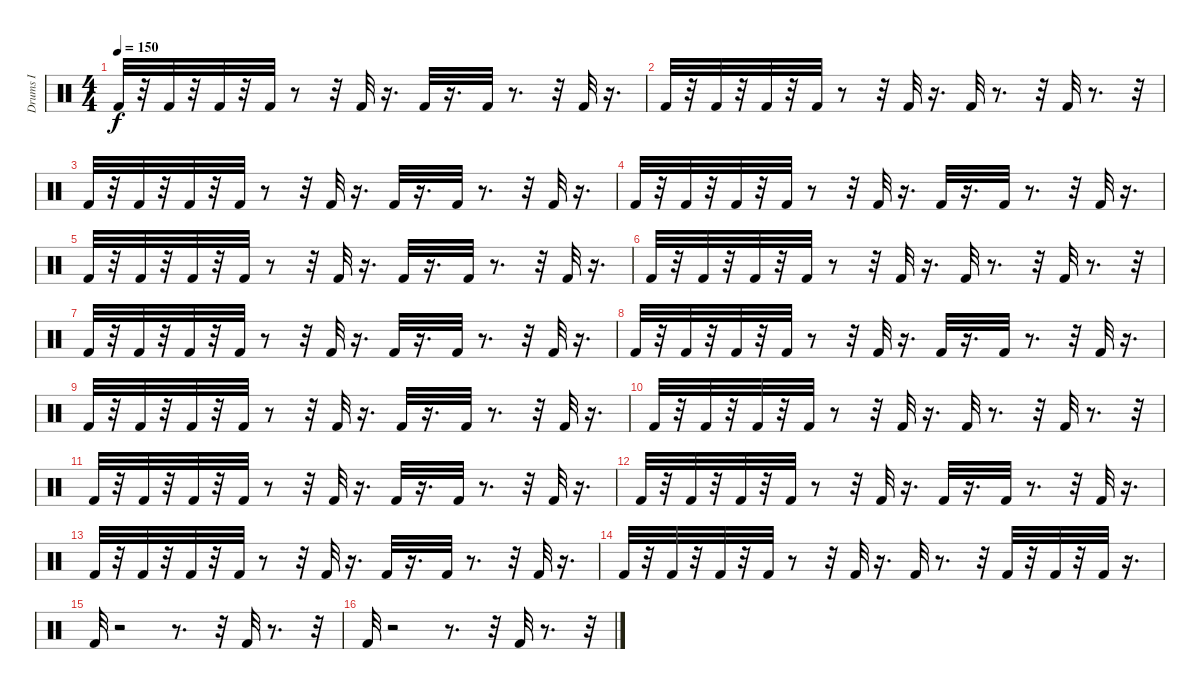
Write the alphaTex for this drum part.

\track ("Drums I" "Drums I") {instrument percussion}
\staff {score}
\articulation defaults
\ts (4 4)
\tempo 150
\clef neutral
\ks c "Kick (hit) 2".32{dy f}
r.32 "Kick (hit) 2".32 r.32 "Kick (hit) 2".32 r.32 "Kick (hit) 2".32 r.8 r.32 "Kick (hit) 2".32 r.16{d} "Kick (hit) 2".32 r.16{d} "Kick (hit) 2".32 r.8{d} r.32 "Kick (hit) 2".32 r.16{d} |
"Kick (hit) 2".32 r.32 "Kick (hit) 2".32 r.32 "Kick (hit) 2".32 r.32 "Kick (hit) 2".32 r.8 r.32 "Kick (hit) 2".32 r.16{d} "Kick (hit) 2".32 r.8{d} r.32 "Kick (hit) 2".32 r.8{d} r.32 |
"Kick (hit) 2".32 r.32 "Kick (hit) 2".32 r.32 "Kick (hit) 2".32 r.32 "Kick (hit) 2".32 r.8 r.32 "Kick (hit) 2".32 r.16{d} "Kick (hit) 2".32 r.16{d} "Kick (hit) 2".32 r.8{d} r.32 "Kick (hit) 2".32 r.16{d} |
"Kick (hit) 2".32 r.32 "Kick (hit) 2".32 r.32 "Kick (hit) 2".32 r.32 "Kick (hit) 2".32 r.8 r.32 "Kick (hit) 2".32 r.16{d} "Kick (hit) 2".32 r.16{d} "Kick (hit) 2".32 r.8{d} r.32 "Kick (hit) 2".32 r.16{d} |
"Kick (hit) 2".32 r.32 "Kick (hit) 2".32 r.32 "Kick (hit) 2".32 r.32 "Kick (hit) 2".32 r.8 r.32 "Kick (hit) 2".32 r.16{d} "Kick (hit) 2".32 r.16{d} "Kick (hit) 2".32 r.8{d} r.32 "Kick (hit) 2".32 r.16{d} |
"Kick (hit) 2".32 r.32 "Kick (hit) 2".32 r.32 "Kick (hit) 2".32 r.32 "Kick (hit) 2".32 r.8 r.32 "Kick (hit) 2".32 r.16{d} "Kick (hit) 2".32 r.8{d} r.32 "Kick (hit) 2".32 r.8{d} r.32 |
"Kick (hit) 2".32 r.32 "Kick (hit) 2".32 r.32 "Kick (hit) 2".32 r.32 "Kick (hit) 2".32 r.8 r.32 "Kick (hit) 2".32 r.16{d} "Kick (hit) 2".32 r.16{d} "Kick (hit) 2".32 r.8{d} r.32 "Kick (hit) 2".32 r.16{d} |
"Kick (hit) 2".32 r.32 "Kick (hit) 2".32 r.32 "Kick (hit) 2".32 r.32 "Kick (hit) 2".32 r.8 r.32 "Kick (hit) 2".32 r.16{d} "Kick (hit) 2".32 r.16{d} "Kick (hit) 2".32 r.8{d} r.32 "Kick (hit) 2".32 r.16{d} |
"Kick (hit) 2".32 r.32 "Kick (hit) 2".32 r.32 "Kick (hit) 2".32 r.32 "Kick (hit) 2".32 r.8 r.32 "Kick (hit) 2".32 r.16{d} "Kick (hit) 2".32 r.16{d} "Kick (hit) 2".32 r.8{d} r.32 "Kick (hit) 2".32 r.16{d} |
"Kick (hit) 2".32 r.32 "Kick (hit) 2".32 r.32 "Kick (hit) 2".32 r.32 "Kick (hit) 2".32 r.8 r.32 "Kick (hit) 2".32 r.16{d} "Kick (hit) 2".32 r.8{d} r.32 "Kick (hit) 2".32 r.8{d} r.32 |
"Kick (hit) 2".32 r.32 "Kick (hit) 2".32 r.32 "Kick (hit) 2".32 r.32 "Kick (hit) 2".32 r.8 r.32 "Kick (hit) 2".32 r.16{d} "Kick (hit) 2".32 r.16{d} "Kick (hit) 2".32 r.8{d} r.32 "Kick (hit) 2".32 r.16{d} |
"Kick (hit) 2".32 r.32 "Kick (hit) 2".32 r.32 "Kick (hit) 2".32 r.32 "Kick (hit) 2".32 r.8 r.32 "Kick (hit) 2".32 r.16{d} "Kick (hit) 2".32 r.16{d} "Kick (hit) 2".32 r.8{d} r.32 "Kick (hit) 2".32 r.16{d} |
"Kick (hit) 2".32 r.32 "Kick (hit) 2".32 r.32 "Kick (hit) 2".32 r.32 "Kick (hit) 2".32 r.8 r.32 "Kick (hit) 2".32 r.16{d} "Kick (hit) 2".32 r.16{d} "Kick (hit) 2".32 r.8{d} r.32 "Kick (hit) 2".32 r.16{d} |
"Kick (hit) 2".32 r.32 "Kick (hit) 2".32 r.32 "Kick (hit) 2".32 r.32 "Kick (hit) 2".32 r.8 r.32 "Kick (hit) 2".32 r.16{d} "Kick (hit) 2".32 r.8{d} r.32 "Kick (hit) 2".32 r.32 "Kick (hit) 2".32 r.32 "Kick (hit) 2".32 r.16{d} |
"Kick (hit) 2".32 r.2 r.8{d} r.32 "Kick (hit) 2".32 r.8{d} r.32 |
"Kick (hit) 2".32 r.2 r.8{d} r.32 "Kick (hit) 2".32 r.8{d} r.32
